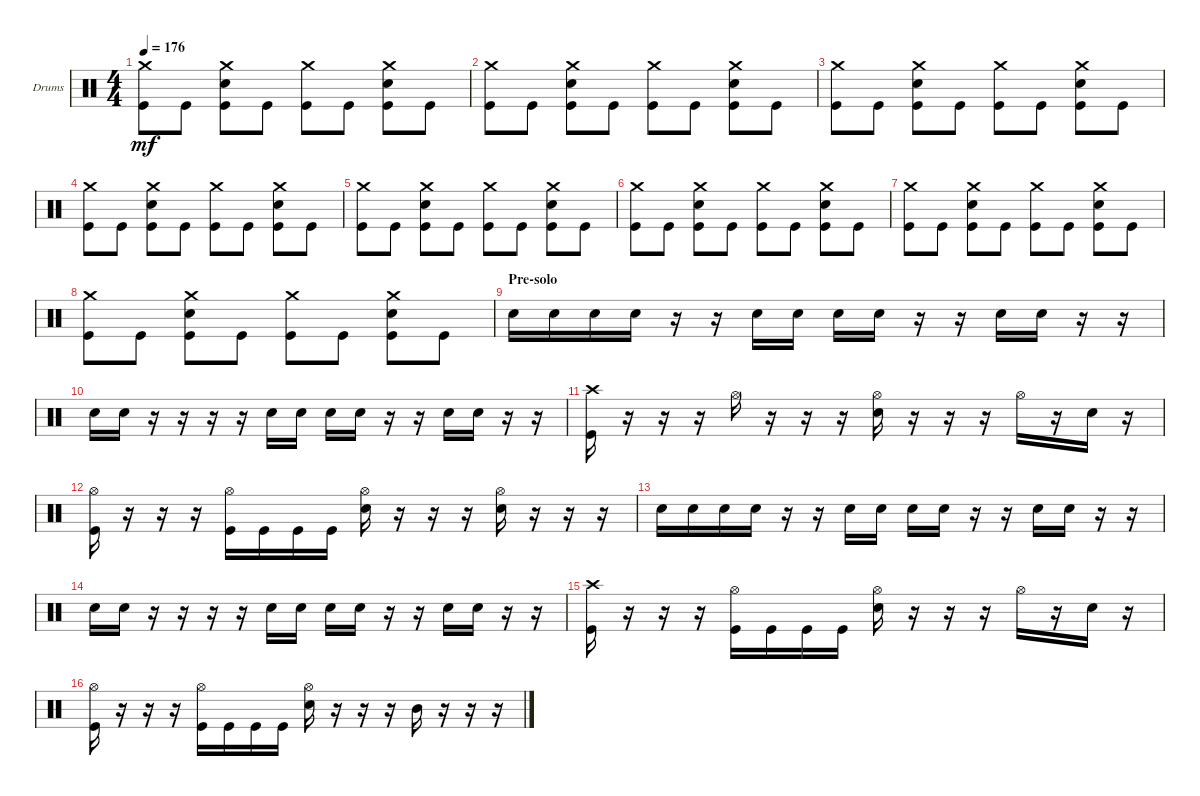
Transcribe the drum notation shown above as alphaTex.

\bracketExtendMode groupsimilarinstruments
\firstSystemTrackNameOrientation horizontal
\otherSystemsTrackNameOrientation horizontal
\track ("Drums" "Drums") {instrument percussion}
\staff {score}
\articulation defaults
\ts (4 4)
\tempo 176
\clef neutral
\ks c
("Crash medium (hit)" "Kick (hit)").8{dy mf} "Kick (hit)".8 ("Crash medium (hit)" "Snare (hit) 2" "Kick (hit)").8 "Kick (hit)".8 ("Crash medium (hit)" "Kick (hit)").8 "Kick (hit)".8 ("Crash medium (hit)" "Snare (hit) 2" "Kick (hit)").8 "Kick (hit)".8 |
("Crash medium (hit)" "Kick (hit)").8 "Kick (hit)".8 ("Crash medium (hit)" "Snare (hit) 2" "Kick (hit)").8 "Kick (hit)".8 ("Crash medium (hit)" "Kick (hit)").8 "Kick (hit)".8 ("Crash medium (hit)" "Snare (hit) 2" "Kick (hit)").8 "Kick (hit)".8 |
("Crash medium (hit)" "Kick (hit)").8 "Kick (hit)".8 ("Crash medium (hit)" "Snare (hit) 2" "Kick (hit)").8 "Kick (hit)".8 ("Crash medium (hit)" "Kick (hit)").8 "Kick (hit)".8 ("Crash medium (hit)" "Snare (hit) 2" "Kick (hit)").8 "Kick (hit)".8 |
("Crash medium (hit)" "Kick (hit)").8 "Kick (hit)".8 ("Crash medium (hit)" "Snare (hit) 2" "Kick (hit)").8 "Kick (hit)".8 ("Crash medium (hit)" "Kick (hit)").8 "Kick (hit)".8 ("Crash medium (hit)" "Snare (hit) 2" "Kick (hit)").8 "Kick (hit)".8 |
("Crash medium (hit)" "Kick (hit)").8 "Kick (hit)".8 ("Crash medium (hit)" "Snare (hit) 2" "Kick (hit)").8 "Kick (hit)".8 ("Crash medium (hit)" "Kick (hit)").8 "Kick (hit)".8 ("Crash medium (hit)" "Snare (hit) 2" "Kick (hit)").8 "Kick (hit)".8 |
("Crash medium (hit)" "Kick (hit)").8 "Kick (hit)".8 ("Crash medium (hit)" "Snare (hit) 2" "Kick (hit)").8 "Kick (hit)".8 ("Crash medium (hit)" "Kick (hit)").8 "Kick (hit)".8 ("Crash medium (hit)" "Snare (hit) 2" "Kick (hit)").8 "Kick (hit)".8 |
("Crash medium (hit)" "Kick (hit)").8 "Kick (hit)".8 ("Crash medium (hit)" "Snare (hit) 2" "Kick (hit)").8 "Kick (hit)".8 ("Crash medium (hit)" "Kick (hit)").8 "Kick (hit)".8 ("Crash medium (hit)" "Snare (hit) 2" "Kick (hit)").8 "Kick (hit)".8 |
("Crash medium (hit)" "Kick (hit)").8 "Kick (hit)".8 ("Crash medium (hit)" "Snare (hit) 2" "Kick (hit)").8 "Kick (hit)".8 ("Crash medium (hit)" "Kick (hit)").8 "Kick (hit)".8 ("Crash medium (hit)" "Snare (hit) 2" "Kick (hit)").8 "Kick (hit)".8 |
\section ("" "Pre-solo")
"Snare (hit) 2".16 "Snare (hit) 2".16 "Snare (hit) 2".16 "Snare (hit) 2".16 r.16 r.16 "Snare (hit) 2".16 "Snare (hit) 2".16 "Snare (hit) 2".16 "Snare (hit) 2".16 r.16 r.16 "Snare (hit) 2".16 "Snare (hit) 2".16 r.16 r.16 |
"Snare (hit) 2".16 "Snare (hit) 2".16 r.16 r.16 r.16 r.16 "Snare (hit) 2".16 "Snare (hit) 2".16 "Snare (hit) 2".16 "Snare (hit) 2".16 r.16 r.16 "Snare (hit) 2".16 "Snare (hit) 2".16 r.16 r.16 |
("Kick (hit)" "Crash high (hit)").16 r.16 r.16 r.16 "Hi-Hat (open)".16 r.16 r.16 r.16 ("Snare (hit) 2" "Hi-Hat (open)").16 r.16 r.16 r.16 "Hi-Hat (open)".16 r.16 "Snare (hit) 2".16 r.16 |
("Kick (hit)" "Hi-Hat (open)").16 r.16 r.16 r.16 ("Kick (hit)" "Hi-Hat (open)").16 "Kick (hit)".16 "Kick (hit)".16 "Kick (hit)".16 ("Snare (hit) 2" "Hi-Hat (open)").16 r.16 r.16 r.16 ("Snare (hit) 2" "Hi-Hat (open)").16 r.16 r.16 r.16 |
"Snare (hit) 2".16 "Snare (hit) 2".16 "Snare (hit) 2".16 "Snare (hit) 2".16 r.16 r.16 "Snare (hit) 2".16 "Snare (hit) 2".16 "Snare (hit) 2".16 "Snare (hit) 2".16 r.16 r.16 "Snare (hit) 2".16 "Snare (hit) 2".16 r.16 r.16 |
"Snare (hit) 2".16 "Snare (hit) 2".16 r.16 r.16 r.16 r.16 "Snare (hit) 2".16 "Snare (hit) 2".16 "Snare (hit) 2".16 "Snare (hit) 2".16 r.16 r.16 "Snare (hit) 2".16 "Snare (hit) 2".16 r.16 r.16 |
("Kick (hit)" "Crash high (hit)").16 r.16 r.16 r.16 ("Hi-Hat (open)" "Kick (hit)").16 "Kick (hit)".16 "Kick (hit)".16 "Kick (hit)".16 ("Snare (hit) 2" "Hi-Hat (open)").16 r.16 r.16 r.16 "Hi-Hat (open)".16 r.16 "Snare (hit) 2".16 r.16 |
("Kick (hit)" "Hi-Hat (open)").16 r.16 r.16 r.16 ("Kick (hit)" "Hi-Hat (open)").16 "Kick (hit)".16 "Kick (hit)".16 "Kick (hit)".16 ("Snare (hit) 2" "Hi-Hat (open)").16 r.16 r.16 r.16 "Mid Tom (hit)".16 r.16 r.16 r.16
